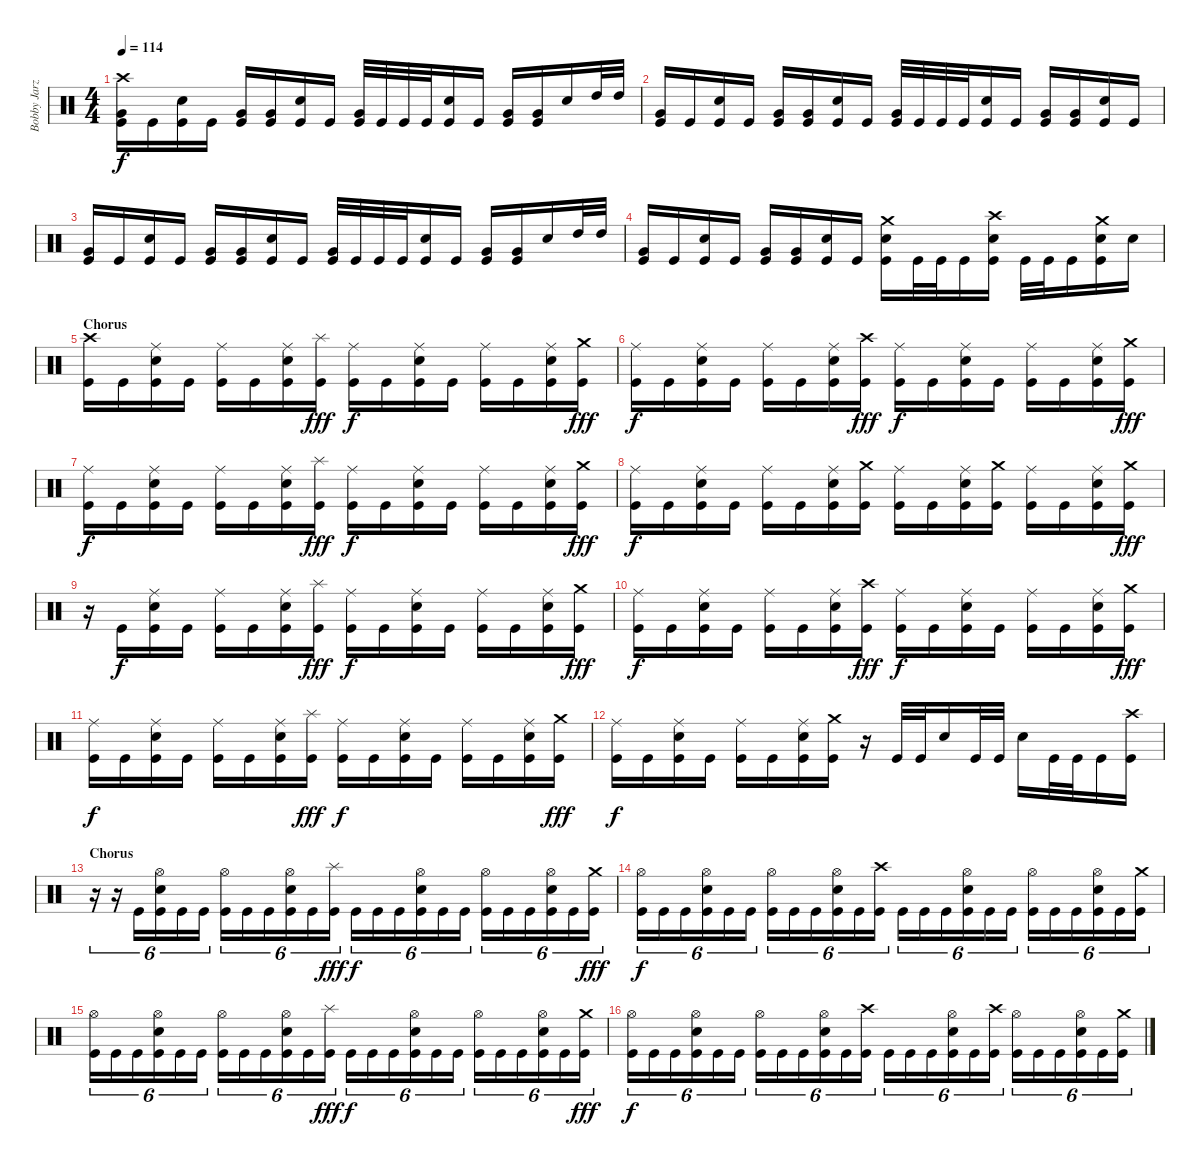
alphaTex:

\track ("Bobby Jarzombek" "Bobby Jarz") {instrument percussion}
\staff {score}
\articulation defaults
\ts (4 4)
\tempo 114
\clef neutral
\ks c
("Crash high (hit)" "Very Low Tom (hit)" "Kick (hit)").16{dy f} "Kick (hit)".16 ("Electric Snare (hit)" "Kick (hit)").16 "Kick (hit)".16 ("Very Low Tom (hit)" "Kick (hit)").16 ("Very Low Tom (hit)" "Kick (hit)").16 ("Electric Snare (hit)" "Kick (hit)").16 "Kick (hit)".16 ("Very Low Tom (hit)" "Kick (hit)").32 "Kick (hit)".32 "Kick (hit)".32 "Kick (hit)".32 ("Electric Snare (hit)" "Kick (hit)").16 "Kick (hit)".16 ("Very Low Tom (hit)" "Kick (hit)").16 ("Very Low Tom (hit)" "Kick (hit)").16 "Electric Snare (hit)".16 "High Tom (hit)".32 "High Tom (hit)".32 |
("Very Low Tom (hit)" "Kick (hit)").16 "Kick (hit)".16 ("Electric Snare (hit)" "Kick (hit)").16 "Kick (hit)".16 ("Very Low Tom (hit)" "Kick (hit)").16 ("Very Low Tom (hit)" "Kick (hit)").16 ("Electric Snare (hit)" "Kick (hit)").16 "Kick (hit)".16 ("Very Low Tom (hit)" "Kick (hit)").32 "Kick (hit)".32 "Kick (hit)".32 "Kick (hit)".32 ("Electric Snare (hit)" "Kick (hit)").16 "Kick (hit)".16 ("Very Low Tom (hit)" "Kick (hit)").16 ("Very Low Tom (hit)" "Kick (hit)").16 ("Electric Snare (hit)" "Kick (hit)").16 "Kick (hit)".16 |
("Very Low Tom (hit)" "Kick (hit)").16 "Kick (hit)".16 ("Electric Snare (hit)" "Kick (hit)").16 "Kick (hit)".16 ("Very Low Tom (hit)" "Kick (hit)").16 ("Very Low Tom (hit)" "Kick (hit)").16 ("Electric Snare (hit)" "Kick (hit)").16 "Kick (hit)".16 ("Very Low Tom (hit)" "Kick (hit)").32 "Kick (hit)".32 "Kick (hit)".32 "Kick (hit)".32 ("Electric Snare (hit)" "Kick (hit)").16 "Kick (hit)".16 ("Very Low Tom (hit)" "Kick (hit)").16 ("Very Low Tom (hit)" "Kick (hit)").16 "Electric Snare (hit)".16 "High Tom (hit)".32 "High Tom (hit)".32 |
("Very Low Tom (hit)" "Kick (hit)").16 "Kick (hit)".16 ("Electric Snare (hit)" "Kick (hit)").16 "Kick (hit)".16 ("Very Low Tom (hit)" "Kick (hit)").16 ("Very Low Tom (hit)" "Kick (hit)").16 ("Electric Snare (hit)" "Kick (hit)").16 "Kick (hit)".16 ("Crash medium (hit)" "Electric Snare (hit)" "Kick (hit)").16 "Kick (hit)".32 "Kick (hit)".32 "Kick (hit)".16 ("Crash high (hit)" "Electric Snare (hit)" "Kick (hit)").16 "Kick (hit)".32 "Kick (hit)".32 "Kick (hit)".16 ("Crash medium (hit)" "Electric Snare (hit)" "Kick (hit)").16 "Electric Snare (hit)".16 |
\section ("" "Chorus")
("Crash high (hit)" "Kick (hit)").16 "Kick (hit)".16 ("Ride (middle)" "Electric Snare (hit)" "Kick (hit)").16 "Kick (hit)".16 ("Ride (middle)" "Kick (hit)").16 "Kick (hit)".16 ("Ride (middle)" "Electric Snare (hit)" "Kick (hit)").16 ("Splash (hit)" "Kick (hit)").16{dy fff} ("Ride (middle)" "Kick (hit)").16{dy f} "Kick (hit)".16 ("Ride (middle)" "Electric Snare (hit)" "Kick (hit)").16 "Kick (hit)".16 ("Ride (middle)" "Kick (hit)").16 "Kick (hit)".16 ("Ride (middle)" "Electric Snare (hit)" "Kick (hit)").16 ("Crash medium (hit)" "Kick (hit)").16{dy fff} |
("Ride (middle)" "Kick (hit)").16{dy f} "Kick (hit)".16 ("Ride (middle)" "Electric Snare (hit)" "Kick (hit)").16 "Kick (hit)".16 ("Ride (middle)" "Kick (hit)").16 "Kick (hit)".16 ("Ride (middle)" "Electric Snare (hit)" "Kick (hit)").16 ("Crash high (hit)" "Kick (hit)").16{dy fff} ("Ride (middle)" "Kick (hit)").16{dy f} "Kick (hit)".16 ("Ride (middle)" "Electric Snare (hit)" "Kick (hit)").16 "Kick (hit)".16 ("Ride (middle)" "Kick (hit)").16 "Kick (hit)".16 ("Ride (middle)" "Electric Snare (hit)" "Kick (hit)").16 ("Crash medium (hit)" "Kick (hit)").16{dy fff} |
("Ride (middle)" "Kick (hit)").16{dy f} "Kick (hit)".16 ("Ride (middle)" "Electric Snare (hit)" "Kick (hit)").16 "Kick (hit)".16 ("Ride (middle)" "Kick (hit)").16 "Kick (hit)".16 ("Ride (middle)" "Electric Snare (hit)" "Kick (hit)").16 ("Splash (hit)" "Kick (hit)").16{dy fff} ("Ride (middle)" "Kick (hit)").16{dy f} "Kick (hit)".16 ("Ride (middle)" "Electric Snare (hit)" "Kick (hit)").16 "Kick (hit)".16 ("Ride (middle)" "Kick (hit)").16 "Kick (hit)".16 ("Ride (middle)" "Electric Snare (hit)" "Kick (hit)").16 ("Crash medium (hit)" "Kick (hit)").16{dy fff} |
("Ride (middle)" "Kick (hit)").16{dy f} "Kick (hit)".16 ("Ride (middle)" "Electric Snare (hit)" "Kick (hit)").16 "Kick (hit)".16 ("Ride (middle)" "Kick (hit)").16 "Kick (hit)".16 ("Ride (middle)" "Electric Snare (hit)" "Kick (hit)").16 ("Crash medium (hit)" "Kick (hit)").16 ("Ride (middle)" "Kick (hit)").16 "Kick (hit)".16 ("Ride (middle)" "Electric Snare (hit)" "Kick (hit)").16 ("Crash medium (hit)" "Kick (hit)").16 ("Ride (middle)" "Kick (hit)").16 "Kick (hit)".16 ("Ride (middle)" "Electric Snare (hit)" "Kick (hit)").16 ("Crash medium (hit)" "Kick (hit)").16{dy fff} |
r.16 "Kick (hit)".16{dy f} ("Ride (middle)" "Electric Snare (hit)" "Kick (hit)").16 "Kick (hit)".16 ("Ride (middle)" "Kick (hit)").16 "Kick (hit)".16 ("Ride (middle)" "Electric Snare (hit)" "Kick (hit)").16 ("Splash (hit)" "Kick (hit)").16{dy fff} ("Ride (middle)" "Kick (hit)").16{dy f} "Kick (hit)".16 ("Ride (middle)" "Electric Snare (hit)" "Kick (hit)").16 "Kick (hit)".16 ("Ride (middle)" "Kick (hit)").16 "Kick (hit)".16 ("Ride (middle)" "Electric Snare (hit)" "Kick (hit)").16 ("Crash medium (hit)" "Kick (hit)").16{dy fff} |
("Ride (middle)" "Kick (hit)").16{dy f} "Kick (hit)".16 ("Ride (middle)" "Electric Snare (hit)" "Kick (hit)").16 "Kick (hit)".16 ("Ride (middle)" "Kick (hit)").16 "Kick (hit)".16 ("Ride (middle)" "Electric Snare (hit)" "Kick (hit)").16 ("Crash high (hit)" "Kick (hit)").16{dy fff} ("Ride (middle)" "Kick (hit)").16{dy f} "Kick (hit)".16 ("Ride (middle)" "Electric Snare (hit)" "Kick (hit)").16 "Kick (hit)".16 ("Ride (middle)" "Kick (hit)").16 "Kick (hit)".16 ("Ride (middle)" "Electric Snare (hit)" "Kick (hit)").16 ("Crash medium (hit)" "Kick (hit)").16{dy fff} |
("Ride (middle)" "Kick (hit)").16{dy f} "Kick (hit)".16 ("Ride (middle)" "Electric Snare (hit)" "Kick (hit)").16 "Kick (hit)".16 ("Ride (middle)" "Kick (hit)").16 "Kick (hit)".16 ("Ride (middle)" "Electric Snare (hit)" "Kick (hit)").16 ("Splash (hit)" "Kick (hit)").16{dy fff} ("Ride (middle)" "Kick (hit)").16{dy f} "Kick (hit)".16 ("Ride (middle)" "Electric Snare (hit)" "Kick (hit)").16 "Kick (hit)".16 ("Ride (middle)" "Kick (hit)").16 "Kick (hit)".16 ("Ride (middle)" "Electric Snare (hit)" "Kick (hit)").16 ("Crash medium (hit)" "Kick (hit)").16{dy fff} |
("Ride (middle)" "Kick (hit)").16{dy f} "Kick (hit)".16 ("Ride (middle)" "Electric Snare (hit)" "Kick (hit)").16 "Kick (hit)".16 ("Ride (middle)" "Kick (hit)").16 "Kick (hit)".16 ("Ride (middle)" "Electric Snare (hit)" "Kick (hit)").16 ("Crash medium (hit)" "Kick (hit)").16 r.16 "Kick (hit)".32 "Kick (hit)".32 "Electric Snare (hit)".16 "Kick (hit)".32 "Kick (hit)".32 "Electric Snare (hit)".16 "Kick (hit)".32 "Kick (hit)".32 "Kick (hit)".16 ("Crash high (hit)" "Kick (hit)").16 |
\section ("" "Chorus")
r.16{tu (6 4)} r.16{tu (6 4)} "Kick (hit)".16{tu (6 4)} ("Hi-Hat (open)" "Electric Snare (hit)" "Kick (hit)").16{tu (6 4)} "Kick (hit)".16{tu (6 4)} "Kick (hit)".16{tu (6 4)} ("Hi-Hat (open)" "Kick (hit)").16{tu (6 4)} "Kick (hit)".16{tu (6 4)} "Kick (hit)".16{tu (6 4)} ("Hi-Hat (open)" "Electric Snare (hit)" "Kick (hit)").16{tu (6 4)} "Kick (hit)".16{tu (6 4)} ("Splash (hit)" "Kick (hit)").16{tu (6 4) dy fff} "Kick (hit)".16{tu (6 4) dy f} "Kick (hit)".16{tu (6 4)} "Kick (hit)".16{tu (6 4)} ("Hi-Hat (open)" "Electric Snare (hit)" "Kick (hit)").16{tu (6 4)} "Kick (hit)".16{tu (6 4)} "Kick (hit)".16{tu (6 4)} ("Hi-Hat (open)" "Kick (hit)").16{tu (6 4)} "Kick (hit)".16{tu (6 4)} "Kick (hit)".16{tu (6 4)} ("Hi-Hat (open)" "Electric Snare (hit)" "Kick (hit)").16{tu (6 4)} "Kick (hit)".16{tu (6 4)} ("Crash medium (hit)" "Kick (hit)").16{tu (6 4) dy fff} |
("Hi-Hat (open)" "Kick (hit)").16{tu (6 4) dy f} "Kick (hit)".16{tu (6 4)} "Kick (hit)".16{tu (6 4)} ("Hi-Hat (open)" "Electric Snare (hit)" "Kick (hit)").16{tu (6 4)} "Kick (hit)".16{tu (6 4)} "Kick (hit)".16{tu (6 4)} ("Hi-Hat (open)" "Kick (hit)").16{tu (6 4)} "Kick (hit)".16{tu (6 4)} "Kick (hit)".16{tu (6 4)} ("Hi-Hat (open)" "Electric Snare (hit)" "Kick (hit)").16{tu (6 4)} "Kick (hit)".16{tu (6 4)} ("Crash high (hit)" "Kick (hit)").16{tu (6 4)} "Kick (hit)".16{tu (6 4)} "Kick (hit)".16{tu (6 4)} "Kick (hit)".16{tu (6 4)} ("Hi-Hat (open)" "Electric Snare (hit)" "Kick (hit)").16{tu (6 4)} "Kick (hit)".16{tu (6 4)} "Kick (hit)".16{tu (6 4)} ("Hi-Hat (open)" "Kick (hit)").16{tu (6 4)} "Kick (hit)".16{tu (6 4)} "Kick (hit)".16{tu (6 4)} ("Hi-Hat (open)" "Electric Snare (hit)" "Kick (hit)").16{tu (6 4)} "Kick (hit)".16{tu (6 4)} ("Crash medium (hit)" "Kick (hit)").16{tu (6 4)} |
("Hi-Hat (open)" "Kick (hit)").16{tu (6 4)} "Kick (hit)".16{tu (6 4)} "Kick (hit)".16{tu (6 4)} ("Hi-Hat (open)" "Electric Snare (hit)" "Kick (hit)").16{tu (6 4)} "Kick (hit)".16{tu (6 4)} "Kick (hit)".16{tu (6 4)} ("Hi-Hat (open)" "Kick (hit)").16{tu (6 4)} "Kick (hit)".16{tu (6 4)} "Kick (hit)".16{tu (6 4)} ("Hi-Hat (open)" "Electric Snare (hit)" "Kick (hit)").16{tu (6 4)} "Kick (hit)".16{tu (6 4)} ("Splash (hit)" "Kick (hit)").16{tu (6 4) dy fff} "Kick (hit)".16{tu (6 4) dy f} "Kick (hit)".16{tu (6 4)} "Kick (hit)".16{tu (6 4)} ("Hi-Hat (open)" "Electric Snare (hit)" "Kick (hit)").16{tu (6 4)} "Kick (hit)".16{tu (6 4)} "Kick (hit)".16{tu (6 4)} ("Hi-Hat (open)" "Kick (hit)").16{tu (6 4)} "Kick (hit)".16{tu (6 4)} "Kick (hit)".16{tu (6 4)} ("Hi-Hat (open)" "Electric Snare (hit)" "Kick (hit)").16{tu (6 4)} "Kick (hit)".16{tu (6 4)} ("Crash medium (hit)" "Kick (hit)").16{tu (6 4) dy fff} |
("Hi-Hat (open)" "Kick (hit)").16{tu (6 4) dy f} "Kick (hit)".16{tu (6 4)} "Kick (hit)".16{tu (6 4)} ("Hi-Hat (open)" "Electric Snare (hit)" "Kick (hit)").16{tu (6 4)} "Kick (hit)".16{tu (6 4)} "Kick (hit)".16{tu (6 4)} ("Hi-Hat (open)" "Kick (hit)").16{tu (6 4)} "Kick (hit)".16{tu (6 4)} "Kick (hit)".16{tu (6 4)} ("Hi-Hat (open)" "Electric Snare (hit)" "Kick (hit)").16{tu (6 4)} "Kick (hit)".16{tu (6 4)} ("Crash high (hit)" "Kick (hit)").16{tu (6 4)} "Kick (hit)".16{tu (6 4)} "Kick (hit)".16{tu (6 4)} "Kick (hit)".16{tu (6 4)} ("Hi-Hat (open)" "Electric Snare (hit)" "Kick (hit)").16{tu (6 4)} "Kick (hit)".16{tu (6 4)} ("Crash high (hit)" "Kick (hit)").16{tu (6 4)} ("Hi-Hat (open)" "Kick (hit)").16{tu (6 4)} "Kick (hit)".16{tu (6 4)} "Kick (hit)".16{tu (6 4)} ("Hi-Hat (open)" "Electric Snare (hit)" "Kick (hit)").16{tu (6 4)} "Kick (hit)".16{tu (6 4)} ("Crash medium (hit)" "Kick (hit)").16{tu (6 4)}
